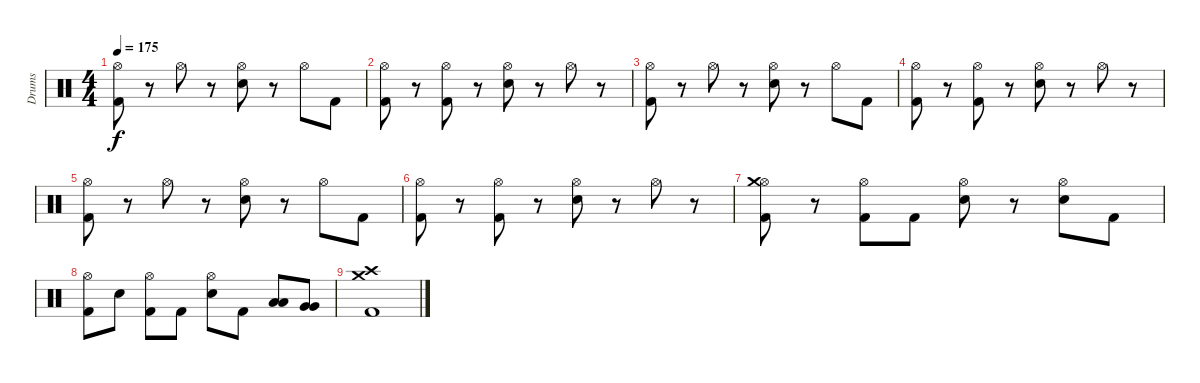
\track ("Drums" "Drums") {instrument percussion}
\staff {score}
\articulation defaults
\ts (4 4)
\tempo 175
\clef neutral
\ks c
("Kick (hit) 2" "Hi-Hat (open)").8{dy f} r.8 "Hi-Hat (open)".8 r.8 ("Electric Snare (hit)" "Hi-Hat (open)").8 r.8 "Hi-Hat (open)".8 "Kick (hit) 2".8 |
("Kick (hit) 2" "Hi-Hat (open)").8 r.8 ("Kick (hit) 2" "Hi-Hat (open)").8 r.8 ("Electric Snare (hit)" "Hi-Hat (open)").8 r.8 "Hi-Hat (open)".8 r.8 |
("Kick (hit) 2" "Hi-Hat (open)").8 r.8 "Hi-Hat (open)".8 r.8 ("Electric Snare (hit)" "Hi-Hat (open)").8 r.8 "Hi-Hat (open)".8 "Kick (hit) 2".8 |
("Kick (hit) 2" "Hi-Hat (open)").8 r.8 ("Kick (hit) 2" "Hi-Hat (open)").8 r.8 ("Electric Snare (hit)" "Hi-Hat (open)").8 r.8 "Hi-Hat (open)".8 r.8 |
("Kick (hit) 2" "Hi-Hat (open)").8 r.8 "Hi-Hat (open)".8 r.8 ("Electric Snare (hit)" "Hi-Hat (open)").8 r.8 "Hi-Hat (open)".8 "Kick (hit) 2".8 |
("Kick (hit) 2" "Hi-Hat (open)").8 r.8 ("Kick (hit) 2" "Hi-Hat (open)").8 r.8 ("Electric Snare (hit)" "Hi-Hat (open)").8 r.8 "Hi-Hat (open)".8 r.8 |
("Kick (hit) 2" "Hi-Hat (open)" "Crash medium (hit)").8 r.8 ("Kick (hit) 2" "Hi-Hat (open)").8 "Kick (hit) 2".8 ("Electric Snare (hit)" "Hi-Hat (open)").8 r.8 ("Electric Snare (hit)" "Hi-Hat (open)").8 "Kick (hit) 2".8 |
("Kick (hit) 2" "Hi-Hat (open)").8 "Electric Snare (hit)".8 ("Kick (hit) 2" "Hi-Hat (open)").8 "Kick (hit) 2".8 ("Electric Snare (hit)" "Hi-Hat (open)").8 "Kick (hit) 2".8 ("Low Tom (hit)" "Low Tom (hit)").8 ("Very Low Tom (hit)" "Very Low Tom (hit)").8 |
("Kick (hit) 2" "Crash high (hit)" "Crash medium (hit)").1
